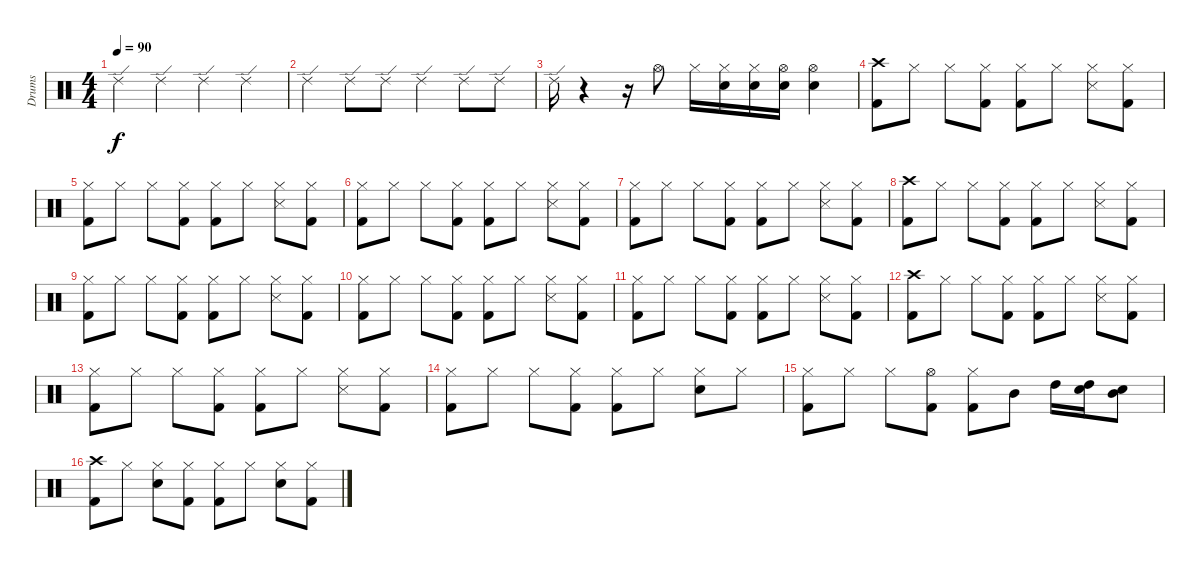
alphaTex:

\track ("Drums" "Drums") {instrument percussion}
\staff {score}
\articulation defaults
\ts (4 4)
\tempo 90
\clef neutral
\ks c "Ride (edge) 2".4{dy f} "Ride (edge) 2".4 "Ride (edge) 2".4 "Ride (edge) 2".4
|
"Ride (edge) 2".4 "Ride (edge) 2".8 "Ride (edge) 2".8 "Ride (edge) 2".4 "Ride (edge) 2".8 "Ride (edge) 2".8 |
"Ride (edge) 2".16 r.4 r.16 "Hi-Hat (open)".8 "Hi-Hat (closed)".16 ("Snare (hit)" "Hi-Hat (closed)").16 ("Snare (hit)" "Hi-Hat (closed)").16 ("Snare (hit)" "Hi-Hat (open)").16 ("Snare (hit)" "Hi-Hat (open)").4 |
("Crash high (hit)" "Kick (hit) 2").8 "Hi-Hat (closed)".8 "Hi-Hat (closed)".8 ("Hi-Hat (closed)" "Kick (hit) 2").8 ("Hi-Hat (closed)" "Kick (hit) 2").8 "Hi-Hat (closed)".8 ("Snare (side stick) 3" "Hi-Hat (closed)").8 ("Hi-Hat (closed)" "Kick (hit) 2").8 |
("Hi-Hat (closed)" "Kick (hit) 2").8 "Hi-Hat (closed)".8 "Hi-Hat (closed)".8 ("Hi-Hat (closed)" "Kick (hit) 2").8 ("Hi-Hat (closed)" "Kick (hit) 2").8 "Hi-Hat (closed)".8 ("Snare (side stick) 3" "Hi-Hat (closed)").8 ("Hi-Hat (closed)" "Kick (hit) 2").8 |
("Hi-Hat (closed)" "Kick (hit) 2").8 "Hi-Hat (closed)".8 "Hi-Hat (closed)".8 ("Hi-Hat (closed)" "Kick (hit) 2").8 ("Hi-Hat (closed)" "Kick (hit) 2").8 "Hi-Hat (closed)".8 ("Snare (side stick) 3" "Hi-Hat (closed)").8 ("Hi-Hat (closed)" "Kick (hit) 2").8 |
("Hi-Hat (closed)" "Kick (hit) 2").8 "Hi-Hat (closed)".8 "Hi-Hat (closed)".8 ("Hi-Hat (closed)" "Kick (hit) 2").8 ("Hi-Hat (closed)" "Kick (hit) 2").8 "Hi-Hat (closed)".8 ("Snare (side stick) 3" "Hi-Hat (closed)").8 ("Hi-Hat (closed)" "Kick (hit) 2").8 |
("Crash high (hit)" "Kick (hit) 2").8 "Hi-Hat (closed)".8 "Hi-Hat (closed)".8 ("Hi-Hat (closed)" "Kick (hit) 2").8 ("Hi-Hat (closed)" "Kick (hit) 2").8 "Hi-Hat (closed)".8 ("Snare (side stick) 3" "Hi-Hat (closed)").8 ("Hi-Hat (closed)" "Kick (hit) 2").8 |
("Hi-Hat (closed)" "Kick (hit) 2").8 "Hi-Hat (closed)".8 "Hi-Hat (closed)".8 ("Hi-Hat (closed)" "Kick (hit) 2").8 ("Hi-Hat (closed)" "Kick (hit) 2").8 "Hi-Hat (closed)".8 ("Snare (side stick) 3" "Hi-Hat (closed)").8 ("Hi-Hat (closed)" "Kick (hit) 2").8 |
("Hi-Hat (closed)" "Kick (hit) 2").8 "Hi-Hat (closed)".8 "Hi-Hat (closed)".8 ("Hi-Hat (closed)" "Kick (hit) 2").8 ("Hi-Hat (closed)" "Kick (hit) 2").8 "Hi-Hat (closed)".8 ("Snare (side stick) 3" "Hi-Hat (closed)").8 ("Hi-Hat (closed)" "Kick (hit) 2").8 |
("Hi-Hat (closed)" "Kick (hit) 2").8 "Hi-Hat (closed)".8 "Hi-Hat (closed)".8 ("Hi-Hat (closed)" "Kick (hit) 2").8 ("Hi-Hat (closed)" "Kick (hit) 2").8 "Hi-Hat (closed)".8 ("Snare (side stick) 3" "Hi-Hat (closed)").8 ("Hi-Hat (closed)" "Kick (hit) 2").8 |
("Crash high (hit)" "Kick (hit) 2").8 "Hi-Hat (closed)".8 "Hi-Hat (closed)".8 ("Hi-Hat (closed)" "Kick (hit) 2").8 ("Hi-Hat (closed)" "Kick (hit) 2").8 "Hi-Hat (closed)".8 ("Snare (side stick) 3" "Hi-Hat (closed)").8 ("Hi-Hat (closed)" "Kick (hit) 2").8 |
("Hi-Hat (closed)" "Kick (hit) 2").8 "Hi-Hat (closed)".8 "Hi-Hat (closed)".8 ("Hi-Hat (closed)" "Kick (hit) 2").8 ("Hi-Hat (closed)" "Kick (hit) 2").8 "Hi-Hat (closed)".8 ("Snare (side stick) 3" "Hi-Hat (closed)").8 ("Hi-Hat (closed)" "Kick (hit) 2").8 |
("Hi-Hat (closed)" "Kick (hit) 2").8 "Hi-Hat (closed)".8 "Hi-Hat (closed)".8 ("Hi-Hat (closed)" "Kick (hit) 2").8 ("Hi-Hat (closed)" "Kick (hit) 2").8 "Hi-Hat (closed)".8 ("Snare (hit) 2" "Hi-Hat (closed)").8 "Hi-Hat (closed)".8 |
("Hi-Hat (closed)" "Kick (hit) 2").8 "Hi-Hat (closed)".8 "Hi-Hat (closed)".8 ("Hi-Hat (open)" "Kick (hit) 2").8 ("Hi-Hat (closed)" "Kick (hit) 2").8 "Mid Tom (hit)".8 "High Tom (hit)".16 ("Snare (hit)" "High Tom (hit)").16 ("Snare (hit)" "Mid Tom (hit)").8 |
("Crash high (hit)" "Kick (hit) 2").8 "Hi-Hat (closed)".8 ("Snare (hit) 2" "Hi-Hat (closed)").8 ("Hi-Hat (closed)" "Kick (hit) 2").8 ("Hi-Hat (closed)" "Kick (hit) 2").8 "Hi-Hat (closed)".8 ("Snare (hit) 2" "Hi-Hat (closed)").8 ("Hi-Hat (closed)" "Kick (hit) 2").8
